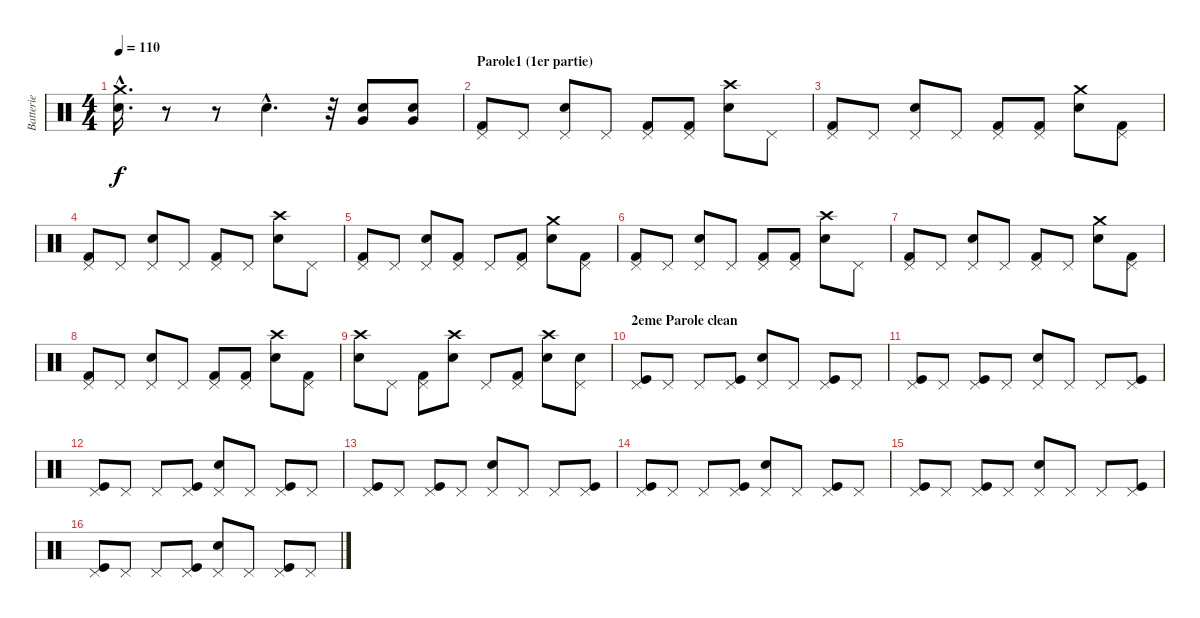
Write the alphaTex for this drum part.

\track ("Batterie" "Batterie") {instrument percussion}
\staff {score}
\articulation defaults
\ts (4 4)
\tempo 110
\clef neutral
\ks c
("Crash medium (hit)"{hac} "Electric Snare (hit)"{hac}).16{d dy f} r.8 r.8 "Electric Snare (hit)"{hac}.4{d} r.32 ("Very Low Tom (hit)" "Electric Snare (hit)").8 ("Very Low Tom (hit)" "Electric Snare (hit)").8 |
\section ("" "Parole1 (1er partie)")
("Pedal Hi-Hat (hit)" "Kick (hit) 2").8 "Pedal Hi-Hat (hit)".8 ("Pedal Hi-Hat (hit)" "Electric Snare (hit)").8 "Pedal Hi-Hat (hit)".8 ("Pedal Hi-Hat (hit)" "Kick (hit) 2").8 ("Pedal Hi-Hat (hit)" "Kick (hit) 2").8 ("Crash high (hit)" "Electric Snare (hit)").8 "Pedal Hi-Hat (hit)".8 |
("Pedal Hi-Hat (hit)" "Kick (hit) 2").8 "Pedal Hi-Hat (hit)".8 ("Pedal Hi-Hat (hit)" "Electric Snare (hit)").8 "Pedal Hi-Hat (hit)".8 ("Pedal Hi-Hat (hit)" "Kick (hit) 2").8 ("Pedal Hi-Hat (hit)" "Kick (hit) 2").8 ("Crash medium (hit)" "Electric Snare (hit)").8 ("Pedal Hi-Hat (hit)" "Kick (hit) 2").8 |
("Pedal Hi-Hat (hit)" "Kick (hit) 2").8 "Pedal Hi-Hat (hit)".8 ("Pedal Hi-Hat (hit)" "Electric Snare (hit)").8 "Pedal Hi-Hat (hit)".8 ("Pedal Hi-Hat (hit)" "Kick (hit) 2").8 "Pedal Hi-Hat (hit)".8 ("Crash high (hit)" "Electric Snare (hit)").8 "Pedal Hi-Hat (hit)".8 |
("Pedal Hi-Hat (hit)" "Kick (hit) 2").8 "Pedal Hi-Hat (hit)".8 ("Pedal Hi-Hat (hit)" "Electric Snare (hit)").8 ("Pedal Hi-Hat (hit)" "Kick (hit) 2").8 "Pedal Hi-Hat (hit)".8 ("Pedal Hi-Hat (hit)" "Kick (hit) 2").8 ("Crash medium (hit)" "Electric Snare (hit)").8 ("Pedal Hi-Hat (hit)" "Kick (hit) 2").8 |
("Pedal Hi-Hat (hit)" "Kick (hit) 2").8 "Pedal Hi-Hat (hit)".8 ("Pedal Hi-Hat (hit)" "Electric Snare (hit)").8 "Pedal Hi-Hat (hit)".8 ("Pedal Hi-Hat (hit)" "Kick (hit) 2").8 ("Pedal Hi-Hat (hit)" "Kick (hit) 2").8 ("Crash high (hit)" "Electric Snare (hit)").8 "Pedal Hi-Hat (hit)".8 |
("Pedal Hi-Hat (hit)" "Kick (hit) 2").8 "Pedal Hi-Hat (hit)".8 ("Pedal Hi-Hat (hit)" "Electric Snare (hit)").8 "Pedal Hi-Hat (hit)".8 ("Pedal Hi-Hat (hit)" "Kick (hit) 2").8 "Pedal Hi-Hat (hit)".8 ("Crash medium (hit)" "Electric Snare (hit)").8 ("Pedal Hi-Hat (hit)" "Kick (hit) 2").8 |
("Pedal Hi-Hat (hit)" "Kick (hit) 2").8 "Pedal Hi-Hat (hit)".8 ("Pedal Hi-Hat (hit)" "Electric Snare (hit)").8 "Pedal Hi-Hat (hit)".8 ("Pedal Hi-Hat (hit)" "Kick (hit) 2").8 ("Pedal Hi-Hat (hit)" "Kick (hit) 2").8 ("Crash high (hit)" "Electric Snare (hit)").8 ("Pedal Hi-Hat (hit)" "Kick (hit) 2").8 |
("Crash high (hit)" "Electric Snare (hit)").8 "Pedal Hi-Hat (hit)".8 ("Pedal Hi-Hat (hit)" "Kick (hit) 2").8 ("Crash high (hit)" "Electric Snare (hit)").8 "Pedal Hi-Hat (hit)".8 ("Pedal Hi-Hat (hit)" "Kick (hit) 2").8 ("Crash high (hit)" "Electric Snare (hit)").8 ("Pedal Hi-Hat (hit)" "Electric Snare (hit)").8 |
\section ("" "2eme Parole clean")
("Pedal Hi-Hat (hit)" "Kick (hit)").8 "Pedal Hi-Hat (hit)".8 "Pedal Hi-Hat (hit)".8 ("Pedal Hi-Hat (hit)" "Kick (hit)").8 ("Pedal Hi-Hat (hit)" "Electric Snare (hit)").8 "Pedal Hi-Hat (hit)".8 ("Pedal Hi-Hat (hit)" "Kick (hit)").8 "Pedal Hi-Hat (hit)".8 |
("Pedal Hi-Hat (hit)" "Kick (hit)").8 "Pedal Hi-Hat (hit)".8 ("Pedal Hi-Hat (hit)" "Kick (hit)").8 "Pedal Hi-Hat (hit)".8 ("Pedal Hi-Hat (hit)" "Electric Snare (hit)").8 "Pedal Hi-Hat (hit)".8 "Pedal Hi-Hat (hit)".8 ("Pedal Hi-Hat (hit)" "Kick (hit)").8 |
("Pedal Hi-Hat (hit)" "Kick (hit)").8 "Pedal Hi-Hat (hit)".8 "Pedal Hi-Hat (hit)".8 ("Pedal Hi-Hat (hit)" "Kick (hit)").8 ("Pedal Hi-Hat (hit)" "Electric Snare (hit)").8 "Pedal Hi-Hat (hit)".8 ("Pedal Hi-Hat (hit)" "Kick (hit)").8 "Pedal Hi-Hat (hit)".8 |
("Pedal Hi-Hat (hit)" "Kick (hit)").8 "Pedal Hi-Hat (hit)".8 ("Pedal Hi-Hat (hit)" "Kick (hit)").8 "Pedal Hi-Hat (hit)".8 ("Pedal Hi-Hat (hit)" "Electric Snare (hit)").8 "Pedal Hi-Hat (hit)".8 "Pedal Hi-Hat (hit)".8 ("Pedal Hi-Hat (hit)" "Kick (hit)").8 |
("Pedal Hi-Hat (hit)" "Kick (hit)").8 "Pedal Hi-Hat (hit)".8 "Pedal Hi-Hat (hit)".8 ("Pedal Hi-Hat (hit)" "Kick (hit)").8 ("Pedal Hi-Hat (hit)" "Electric Snare (hit)").8 "Pedal Hi-Hat (hit)".8 ("Pedal Hi-Hat (hit)" "Kick (hit)").8 "Pedal Hi-Hat (hit)".8 |
("Pedal Hi-Hat (hit)" "Kick (hit)").8 "Pedal Hi-Hat (hit)".8 ("Pedal Hi-Hat (hit)" "Kick (hit)").8 "Pedal Hi-Hat (hit)".8 ("Pedal Hi-Hat (hit)" "Electric Snare (hit)").8 "Pedal Hi-Hat (hit)".8 "Pedal Hi-Hat (hit)".8 ("Pedal Hi-Hat (hit)" "Kick (hit)").8 |
("Pedal Hi-Hat (hit)" "Kick (hit)").8 "Pedal Hi-Hat (hit)".8 "Pedal Hi-Hat (hit)".8 ("Pedal Hi-Hat (hit)" "Kick (hit)").8 ("Pedal Hi-Hat (hit)" "Electric Snare (hit)").8 "Pedal Hi-Hat (hit)".8 ("Pedal Hi-Hat (hit)" "Kick (hit)").8 "Pedal Hi-Hat (hit)".8
